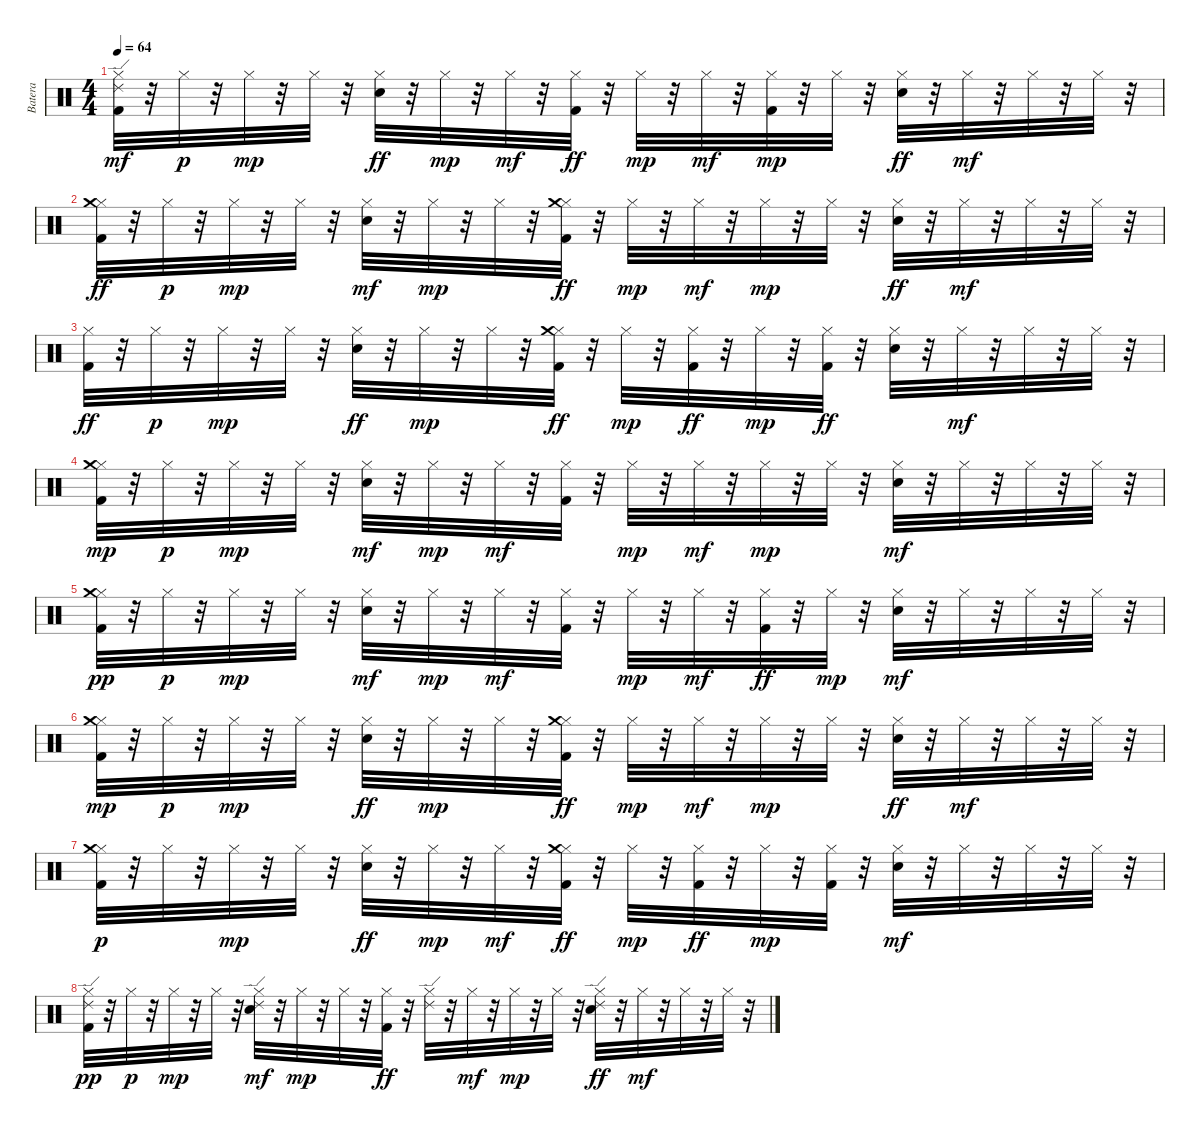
\track ("Batera" "Batera") {instrument percussion}
\staff {score}
\articulation defaults
\ts (4 4)
\tempo 64
\clef neutral
\ks c
("Hi-Hat (closed)" "Kick (hit) 2" "Ride (edge) 2").32{dy mf} r.32 "Hi-Hat (closed)".32{dy p} r.32 "Hi-Hat (closed)".32{dy mp} r.32 "Hi-Hat (closed)".32 r.32 ("Hi-Hat (closed)" "Snare (hit) 2").32{dy ff} r.32 "Hi-Hat (closed)".32{dy mp} r.32 "Hi-Hat (closed)".32{dy mf} r.32 ("Hi-Hat (closed)" "Kick (hit) 2").32{dy ff} r.32 "Hi-Hat (closed)".32{dy mp} r.32 "Hi-Hat (closed)".32{dy mf} r.32 ("Hi-Hat (closed)" "Kick (hit) 2").32{dy mp} r.32 "Hi-Hat (closed)".32 r.32 ("Hi-Hat (closed)" "Snare (hit) 2").32{dy ff} r.32 "Hi-Hat (closed)".32{dy mf} r.32 "Hi-Hat (closed)".32 r.32 "Hi-Hat (closed)".32 r.32 |
("Hi-Hat (closed)" "Crash medium (hit)" "Kick (hit) 2").32{dy ff} r.32 "Hi-Hat (closed)".32{dy p} r.32 "Hi-Hat (closed)".32{dy mp} r.32 "Hi-Hat (closed)".32 r.32 ("Hi-Hat (closed)" "Snare (hit) 2").32{dy mf} r.32 "Hi-Hat (closed)".32{dy mp} r.32 "Hi-Hat (closed)".32 r.32 ("Hi-Hat (closed)" "Crash medium (hit)" "Kick (hit) 2").32{dy ff} r.32 "Hi-Hat (closed)".32{dy mp} r.32 "Hi-Hat (closed)".32{dy mf} r.32 "Hi-Hat (closed)".32{dy mp} r.32 "Hi-Hat (closed)".32 r.32 ("Hi-Hat (closed)" "Snare (hit) 2").32{dy ff} r.32 "Hi-Hat (closed)".32{dy mf} r.32 "Hi-Hat (closed)".32 r.32 "Hi-Hat (closed)".32 r.32 |
("Hi-Hat (closed)" "Kick (hit) 2").32{dy ff} r.32 "Hi-Hat (closed)".32{dy p} r.32 "Hi-Hat (closed)".32{dy mp} r.32 "Hi-Hat (closed)".32 r.32 ("Hi-Hat (closed)" "Snare (hit) 2").32{dy ff} r.32 "Hi-Hat (closed)".32{dy mp} r.32 "Hi-Hat (closed)".32 r.32 ("Hi-Hat (closed)" "Kick (hit) 2" "Crash medium (hit)").32{dy ff} r.32 "Hi-Hat (closed)".32{dy mp} r.32 ("Hi-Hat (closed)" "Kick (hit) 2").32{dy ff} r.32 "Hi-Hat (closed)".32{dy mp} r.32 ("Hi-Hat (closed)" "Kick (hit) 2").32{dy ff} r.32 ("Hi-Hat (closed)" "Snare (hit) 2").32 r.32 "Hi-Hat (closed)".32{dy mf} r.32 "Hi-Hat (closed)".32 r.32 "Hi-Hat (closed)".32 r.32 |
("Hi-Hat (closed)" "Kick (hit) 2" "Crash medium (hit)").32{dy mp} r.32 "Hi-Hat (closed)".32{dy p} r.32 "Hi-Hat (closed)".32{dy mp} r.32 "Hi-Hat (closed)".32 r.32 ("Hi-Hat (closed)" "Snare (hit) 2").32{dy mf} r.32 "Hi-Hat (closed)".32{dy mp} r.32 "Hi-Hat (closed)".32{dy mf} r.32 ("Hi-Hat (closed)" "Kick (hit) 2").32 r.32 "Hi-Hat (closed)".32{dy mp} r.32 "Hi-Hat (closed)".32{dy mf} r.32 "Hi-Hat (closed)".32{dy mp} r.32 "Hi-Hat (closed)".32 r.32 ("Hi-Hat (closed)" "Snare (hit) 2").32{dy mf} r.32 "Hi-Hat (closed)".32 r.32 "Hi-Hat (closed)".32 r.32 "Hi-Hat (closed)".32 r.32 |
("Hi-Hat (closed)" "Kick (hit) 2" "Crash medium (hit)").32{dy pp} r.32 "Hi-Hat (closed)".32{dy p} r.32 "Hi-Hat (closed)".32{dy mp} r.32 "Hi-Hat (closed)".32 r.32 ("Hi-Hat (closed)" "Snare (hit) 2").32{dy mf} r.32 "Hi-Hat (closed)".32{dy mp} r.32 "Hi-Hat (closed)".32{dy mf} r.32 ("Hi-Hat (closed)" "Kick (hit) 2").32 r.32 "Hi-Hat (closed)".32{dy mp} r.32 "Hi-Hat (closed)".32{dy mf} r.32 ("Hi-Hat (closed)" "Kick (hit) 2").32{dy ff} r.32 "Hi-Hat (closed)".32{dy mp} r.32 ("Hi-Hat (closed)" "Snare (hit) 2").32{dy mf} r.32 "Hi-Hat (closed)".32 r.32 "Hi-Hat (closed)".32 r.32 "Hi-Hat (closed)".32 r.32 |
("Hi-Hat (closed)" "Kick (hit) 2" "Crash medium (hit)").32{dy mp} r.32 "Hi-Hat (closed)".32{dy p} r.32 "Hi-Hat (closed)".32{dy mp} r.32 "Hi-Hat (closed)".32 r.32 ("Hi-Hat (closed)" "Snare (hit) 2").32{dy ff} r.32 "Hi-Hat (closed)".32{dy mp} r.32 "Hi-Hat (closed)".32 r.32 ("Hi-Hat (closed)" "Crash medium (hit)" "Kick (hit) 2").32{dy ff} r.32 "Hi-Hat (closed)".32{dy mp} r.32 "Hi-Hat (closed)".32{dy mf} r.32 "Hi-Hat (closed)".32{dy mp} r.32 "Hi-Hat (closed)".32 r.32 ("Hi-Hat (closed)" "Snare (hit) 2").32{dy ff} r.32 "Hi-Hat (closed)".32{dy mf} r.32 "Hi-Hat (closed)".32 r.32 "Hi-Hat (closed)".32 r.32 |
("Hi-Hat (closed)" "Kick (hit) 2" "Crash medium (hit)").32{dy p} r.32 "Hi-Hat (closed)".32 r.32 "Hi-Hat (closed)".32{dy mp} r.32 "Hi-Hat (closed)".32 r.32 ("Hi-Hat (closed)" "Snare (hit) 2").32{dy ff} r.32 "Hi-Hat (closed)".32{dy mp} r.32 "Hi-Hat (closed)".32{dy mf} r.32 ("Hi-Hat (closed)" "Crash medium (hit)" "Kick (hit) 2").32{dy ff} r.32 "Hi-Hat (closed)".32{dy mp} r.32 ("Hi-Hat (closed)" "Kick (hit) 2").32{dy ff} r.32 "Hi-Hat (closed)".32{dy mp} r.32 ("Hi-Hat (closed)" "Kick (hit) 2").32 r.32 ("Hi-Hat (closed)" "Snare (hit) 2").32{dy mf} r.32 "Hi-Hat (closed)".32 r.32 "Hi-Hat (closed)".32 r.32 "Hi-Hat (closed)".32 r.32 |
("Hi-Hat (closed)" "Kick (hit) 2" "Ride (edge) 2").32{dy pp} r.32 "Hi-Hat (closed)".32{dy p} r.32 "Hi-Hat (closed)".32{dy mp} r.32 "Hi-Hat (closed)".32 r.32 ("Hi-Hat (closed)" "Ride (edge) 2" "Snare (hit) 2").32{dy mf} r.32 "Hi-Hat (closed)".32{dy mp} r.32 "Hi-Hat (closed)".32 r.32 ("Hi-Hat (closed)" "Kick (hit) 2").32{dy ff} r.32 ("Hi-Hat (closed)" "Ride (edge) 2").32 r.32 "Hi-Hat (closed)".32{dy mf} r.32 "Hi-Hat (closed)".32{dy mp} r.32 "Hi-Hat (closed)".32 r.32 ("Hi-Hat (closed)" "Snare (hit) 2" "Ride (edge) 2").32{dy ff} r.32 "Hi-Hat (closed)".32{dy mf} r.32 "Hi-Hat (closed)".32 r.32 "Hi-Hat (closed)".32 r.32
